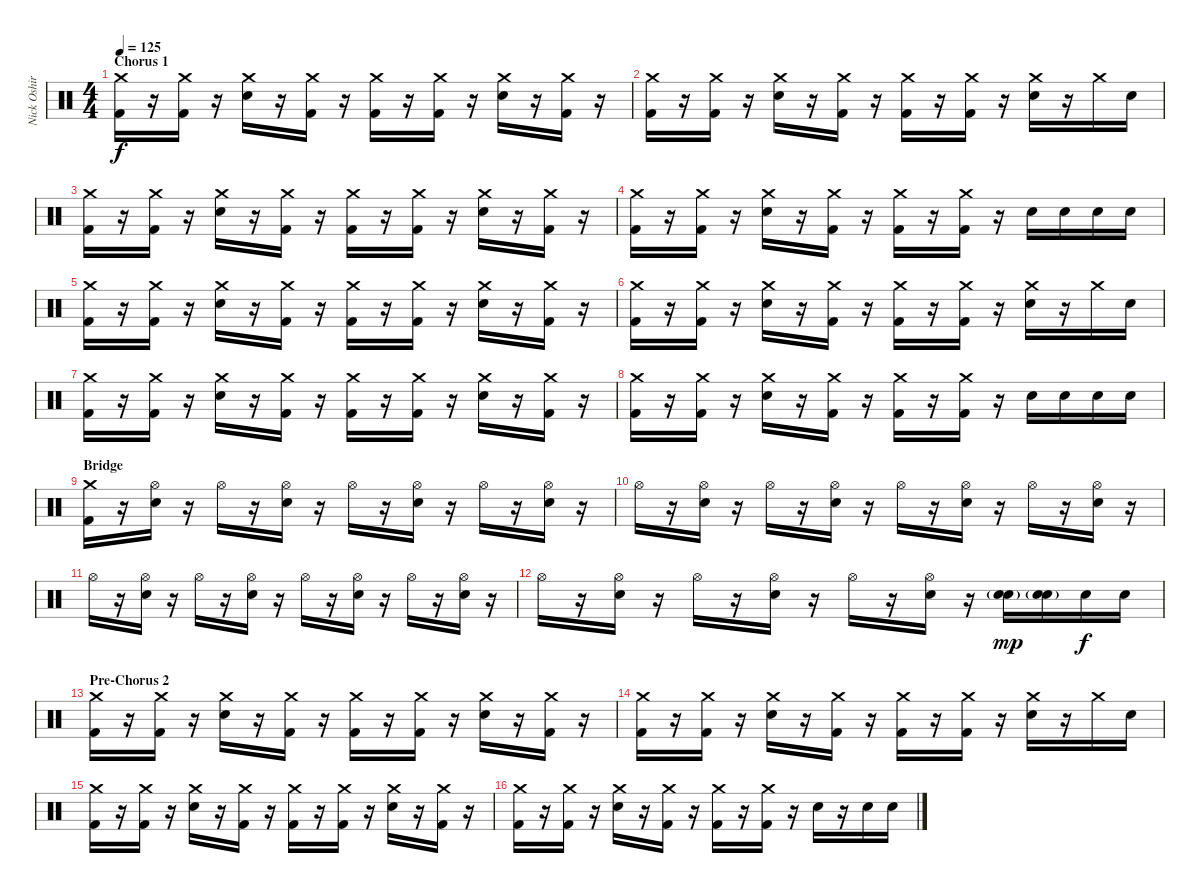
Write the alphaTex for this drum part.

\track ("Nick Oshiro - Drums" "Nick Oshir") {instrument percussion}
\staff {score}
\articulation defaults
\ts (4 4)
\section ("" "Chorus 1")
\tempo 125
\clef neutral
\ks c
("Crash medium (hit)" "Kick (hit) 2").16{dy f} r.16 ("Crash medium (hit)" "Kick (hit) 2").16 r.16 ("Crash medium (hit)" "Snare (hit) 2").16 r.16 ("Crash medium (hit)" "Kick (hit) 2").16 r.16 ("Crash medium (hit)" "Kick (hit) 2").16 r.16 ("Crash medium (hit)" "Kick (hit) 2").16 r.16 ("Crash medium (hit)" "Snare (hit) 2").16 r.16 ("Crash medium (hit)" "Kick (hit) 2").16 r.16 |
("Crash medium (hit)" "Kick (hit) 2").16 r.16 ("Crash medium (hit)" "Kick (hit) 2").16 r.16 ("Crash medium (hit)" "Snare (hit) 2").16 r.16 ("Crash medium (hit)" "Kick (hit) 2").16 r.16 ("Crash medium (hit)" "Kick (hit) 2").16 r.16 ("Crash medium (hit)" "Kick (hit) 2").16 r.16 ("Crash medium (hit)" "Snare (hit) 2").16 r.16 "Crash medium (hit)".16 "Snare (hit) 2".16 |
("Crash medium (hit)" "Kick (hit) 2").16 r.16 ("Crash medium (hit)" "Kick (hit) 2").16 r.16 ("Crash medium (hit)" "Snare (hit) 2").16 r.16 ("Crash medium (hit)" "Kick (hit) 2").16 r.16 ("Crash medium (hit)" "Kick (hit) 2").16 r.16 ("Crash medium (hit)" "Kick (hit) 2").16 r.16 ("Crash medium (hit)" "Snare (hit) 2").16 r.16 ("Crash medium (hit)" "Kick (hit) 2").16 r.16 |
("Crash medium (hit)" "Kick (hit) 2").16 r.16 ("Crash medium (hit)" "Kick (hit) 2").16 r.16 ("Crash medium (hit)" "Snare (hit) 2").16 r.16 ("Crash medium (hit)" "Kick (hit) 2").16 r.16 ("Crash medium (hit)" "Kick (hit) 2").16 r.16 ("Crash medium (hit)" "Kick (hit) 2").16 r.16 "Snare (hit) 2".16 "Snare (hit) 2".16 "Snare (hit) 2".16 "Snare (hit) 2".16 |
("Crash medium (hit)" "Kick (hit) 2").16 r.16 ("Crash medium (hit)" "Kick (hit) 2").16 r.16 ("Crash medium (hit)" "Snare (hit) 2").16 r.16 ("Crash medium (hit)" "Kick (hit) 2").16 r.16 ("Crash medium (hit)" "Kick (hit) 2").16 r.16 ("Crash medium (hit)" "Kick (hit) 2").16 r.16 ("Crash medium (hit)" "Snare (hit) 2").16 r.16 ("Crash medium (hit)" "Kick (hit) 2").16 r.16 |
("Crash medium (hit)" "Kick (hit) 2").16 r.16 ("Crash medium (hit)" "Kick (hit) 2").16 r.16 ("Crash medium (hit)" "Snare (hit) 2").16 r.16 ("Crash medium (hit)" "Kick (hit) 2").16 r.16 ("Crash medium (hit)" "Kick (hit) 2").16 r.16 ("Crash medium (hit)" "Kick (hit) 2").16 r.16 ("Crash medium (hit)" "Snare (hit) 2").16 r.16 "Crash medium (hit)".16 "Snare (hit) 2".16 |
("Crash medium (hit)" "Kick (hit) 2").16 r.16 ("Crash medium (hit)" "Kick (hit) 2").16 r.16 ("Crash medium (hit)" "Snare (hit) 2").16 r.16 ("Crash medium (hit)" "Kick (hit) 2").16 r.16 ("Crash medium (hit)" "Kick (hit) 2").16 r.16 ("Crash medium (hit)" "Kick (hit) 2").16 r.16 ("Crash medium (hit)" "Snare (hit) 2").16 r.16 ("Crash medium (hit)" "Kick (hit) 2").16 r.16 |
("Crash medium (hit)" "Kick (hit) 2").16 r.16 ("Crash medium (hit)" "Kick (hit) 2").16 r.16 ("Crash medium (hit)" "Snare (hit) 2").16 r.16 ("Crash medium (hit)" "Kick (hit) 2").16 r.16 ("Crash medium (hit)" "Kick (hit) 2").16 r.16 ("Crash medium (hit)" "Kick (hit) 2").16 r.16 "Snare (hit) 2".16 "Snare (hit) 2".16 "Snare (hit) 2".16 "Snare (hit) 2".16 |
\section ("" "Bridge")
("Crash medium (hit)" "Kick (hit) 2").16 r.16 ("Hi-Hat (open)" "Snare (hit) 2").16 r.16 "Hi-Hat (open)".16 r.16 ("Hi-Hat (open)" "Snare (hit) 2").16 r.16 "Hi-Hat (open)".16 r.16 ("Hi-Hat (open)" "Snare (hit) 2").16 r.16 "Hi-Hat (open)".16 r.16 ("Hi-Hat (open)" "Snare (hit) 2").16 r.16 |
"Hi-Hat (open)".16 r.16 ("Hi-Hat (open)" "Snare (hit) 2").16 r.16 "Hi-Hat (open)".16 r.16 ("Hi-Hat (open)" "Snare (hit) 2").16 r.16 "Hi-Hat (open)".16 r.16 ("Hi-Hat (open)" "Snare (hit) 2").16 r.16 "Hi-Hat (open)".16 r.16 ("Hi-Hat (open)" "Snare (hit) 2").16 r.16 |
"Hi-Hat (open)".16 r.16 ("Hi-Hat (open)" "Snare (hit) 2").16 r.16 "Hi-Hat (open)".16 r.16 ("Hi-Hat (open)" "Snare (hit) 2").16 r.16 "Hi-Hat (open)".16 r.16 ("Hi-Hat (open)" "Snare (hit) 2").16 r.16 "Hi-Hat (open)".16 r.16 ("Hi-Hat (open)" "Snare (hit) 2").16 r.16 |
"Hi-Hat (open)".16 r.16 ("Hi-Hat (open)" "Snare (hit) 2").16 r.16 "Hi-Hat (open)".16 r.16 ("Hi-Hat (open)" "Snare (hit) 2").16 r.16 "Hi-Hat (open)".16 r.16 ("Hi-Hat (open)" "Snare (hit) 2").16 r.16 ("Snare (hit) 2"{g} "Snare (hit) 2").16{dy mp} ("Snare (hit) 2"{g} "Snare (hit) 2").16 "Snare (hit) 2".16{dy f} "Snare (hit) 2".16 |
\section ("" "Pre-Chorus 2")
("Crash medium (hit)" "Kick (hit) 2").16 r.16 ("Crash medium (hit)" "Kick (hit) 2").16 r.16 ("Crash medium (hit)" "Snare (hit) 2").16 r.16 ("Crash medium (hit)" "Kick (hit) 2").16 r.16 ("Crash medium (hit)" "Kick (hit) 2").16 r.16 ("Crash medium (hit)" "Kick (hit) 2").16 r.16 ("Crash medium (hit)" "Snare (hit) 2").16 r.16 ("Crash medium (hit)" "Kick (hit) 2").16 r.16 |
("Crash medium (hit)" "Kick (hit) 2").16 r.16 ("Crash medium (hit)" "Kick (hit) 2").16 r.16 ("Crash medium (hit)" "Snare (hit) 2").16 r.16 ("Crash medium (hit)" "Kick (hit) 2").16 r.16 ("Crash medium (hit)" "Kick (hit) 2").16 r.16 ("Crash medium (hit)" "Kick (hit) 2").16 r.16 ("Crash medium (hit)" "Snare (hit) 2").16 r.16 "Crash medium (hit)".16 "Snare (hit) 2".16 |
("Crash medium (hit)" "Kick (hit) 2").16 r.16 ("Crash medium (hit)" "Kick (hit) 2").16 r.16 ("Crash medium (hit)" "Snare (hit) 2").16 r.16 ("Crash medium (hit)" "Kick (hit) 2").16 r.16 ("Crash medium (hit)" "Kick (hit) 2").16 r.16 ("Crash medium (hit)" "Kick (hit) 2").16 r.16 ("Crash medium (hit)" "Snare (hit) 2").16 r.16 ("Crash medium (hit)" "Kick (hit) 2").16 r.16 |
("Crash medium (hit)" "Kick (hit) 2").16 r.16 ("Crash medium (hit)" "Kick (hit) 2").16 r.16 ("Crash medium (hit)" "Snare (hit) 2").16 r.16 ("Crash medium (hit)" "Kick (hit) 2").16 r.16 ("Crash medium (hit)" "Kick (hit) 2").16 r.16 ("Crash medium (hit)" "Kick (hit) 2").16 r.16 "Snare (hit) 2".16 r.16 "Snare (hit) 2".16 "Snare (hit) 2".16
